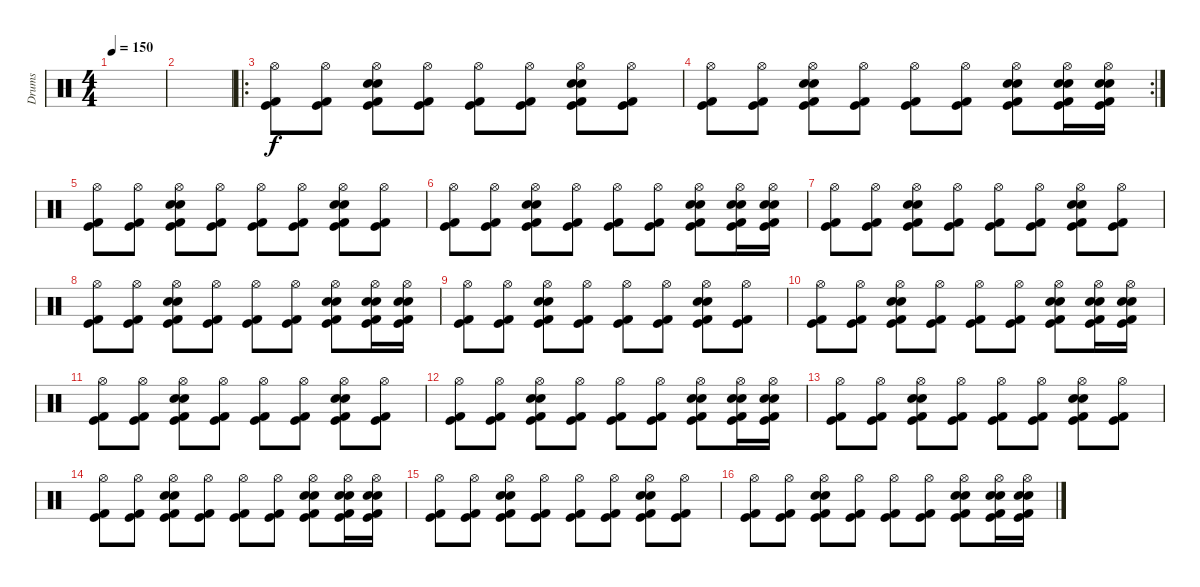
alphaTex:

\track ("Drums" "Drums") {instrument percussion}
\staff {score}
\articulation defaults
\ts (4 4)
\tempo 150
\clef neutral
\ks c
|
|
\ro
("Hi-Hat (open)" "Kick (hit)" "Kick (hit) 2").8 ("Hi-Hat (open)" "Kick (hit)" "Kick (hit) 2").8 ("Snare (hit) 2" "Electric Snare (hit)" "Hi-Hat (open)" "Kick (hit)" "Kick (hit) 2").8 ("Hi-Hat (open)" "Kick (hit)" "Kick (hit) 2").8 ("Hi-Hat (open)" "Kick (hit)" "Kick (hit) 2").8 ("Hi-Hat (open)" "Kick (hit)" "Kick (hit) 2").8 ("Snare (hit) 2" "Electric Snare (hit)" "Hi-Hat (open)" "Kick (hit)" "Kick (hit) 2").8 ("Hi-Hat (open)" "Kick (hit)" "Kick (hit) 2").8 |
\rc 2
("Hi-Hat (open)" "Kick (hit)" "Kick (hit) 2").8 ("Hi-Hat (open)" "Kick (hit)" "Kick (hit) 2").8 ("Snare (hit) 2" "Electric Snare (hit)" "Hi-Hat (open)" "Kick (hit)" "Kick (hit) 2").8 ("Hi-Hat (open)" "Kick (hit)" "Kick (hit) 2").8 ("Hi-Hat (open)" "Kick (hit)" "Kick (hit) 2").8 ("Hi-Hat (open)" "Kick (hit)" "Kick (hit) 2").8 ("Snare (hit) 2" "Electric Snare (hit)" "Hi-Hat (open)" "Kick (hit)" "Kick (hit) 2").8 ("Snare (hit) 2" "Electric Snare (hit)" "Hi-Hat (open)" "Kick (hit)" "Kick (hit) 2").16 ("Snare (hit) 2" "Electric Snare (hit)" "Hi-Hat (open)" "Kick (hit)" "Kick (hit) 2").16 |
("Hi-Hat (open)" "Kick (hit)" "Kick (hit) 2").8 ("Hi-Hat (open)" "Kick (hit)" "Kick (hit) 2").8 ("Snare (hit) 2" "Electric Snare (hit)" "Hi-Hat (open)" "Kick (hit)" "Kick (hit) 2").8 ("Hi-Hat (open)" "Kick (hit)" "Kick (hit) 2").8 ("Hi-Hat (open)" "Kick (hit)" "Kick (hit) 2").8 ("Hi-Hat (open)" "Kick (hit)" "Kick (hit) 2").8 ("Snare (hit) 2" "Electric Snare (hit)" "Hi-Hat (open)" "Kick (hit)" "Kick (hit) 2").8 ("Hi-Hat (open)" "Kick (hit)" "Kick (hit) 2").8 |
("Hi-Hat (open)" "Kick (hit)" "Kick (hit) 2").8 ("Hi-Hat (open)" "Kick (hit)" "Kick (hit) 2").8 ("Snare (hit) 2" "Electric Snare (hit)" "Hi-Hat (open)" "Kick (hit)" "Kick (hit) 2").8 ("Hi-Hat (open)" "Kick (hit)" "Kick (hit) 2").8 ("Hi-Hat (open)" "Kick (hit)" "Kick (hit) 2").8 ("Hi-Hat (open)" "Kick (hit)" "Kick (hit) 2").8 ("Snare (hit) 2" "Electric Snare (hit)" "Hi-Hat (open)" "Kick (hit)" "Kick (hit) 2").8 ("Snare (hit) 2" "Electric Snare (hit)" "Hi-Hat (open)" "Kick (hit)" "Kick (hit) 2").16 ("Snare (hit) 2" "Electric Snare (hit)" "Hi-Hat (open)" "Kick (hit)" "Kick (hit) 2").16 |
("Hi-Hat (open)" "Kick (hit)" "Kick (hit) 2").8 ("Hi-Hat (open)" "Kick (hit)" "Kick (hit) 2").8 ("Snare (hit) 2" "Electric Snare (hit)" "Hi-Hat (open)" "Kick (hit)" "Kick (hit) 2").8 ("Hi-Hat (open)" "Kick (hit)" "Kick (hit) 2").8 ("Hi-Hat (open)" "Kick (hit)" "Kick (hit) 2").8 ("Hi-Hat (open)" "Kick (hit)" "Kick (hit) 2").8 ("Snare (hit) 2" "Electric Snare (hit)" "Hi-Hat (open)" "Kick (hit)" "Kick (hit) 2").8 ("Hi-Hat (open)" "Kick (hit)" "Kick (hit) 2").8 |
("Hi-Hat (open)" "Kick (hit)" "Kick (hit) 2").8 ("Hi-Hat (open)" "Kick (hit)" "Kick (hit) 2").8 ("Snare (hit) 2" "Electric Snare (hit)" "Hi-Hat (open)" "Kick (hit)" "Kick (hit) 2").8 ("Hi-Hat (open)" "Kick (hit)" "Kick (hit) 2").8 ("Hi-Hat (open)" "Kick (hit)" "Kick (hit) 2").8 ("Hi-Hat (open)" "Kick (hit)" "Kick (hit) 2").8 ("Snare (hit) 2" "Electric Snare (hit)" "Hi-Hat (open)" "Kick (hit)" "Kick (hit) 2").8 ("Snare (hit) 2" "Electric Snare (hit)" "Hi-Hat (open)" "Kick (hit)" "Kick (hit) 2").16 ("Snare (hit) 2" "Electric Snare (hit)" "Hi-Hat (open)" "Kick (hit)" "Kick (hit) 2").16 |
("Hi-Hat (open)" "Kick (hit)" "Kick (hit) 2").8 ("Hi-Hat (open)" "Kick (hit)" "Kick (hit) 2").8 ("Snare (hit) 2" "Electric Snare (hit)" "Hi-Hat (open)" "Kick (hit)" "Kick (hit) 2").8 ("Hi-Hat (open)" "Kick (hit)" "Kick (hit) 2").8 ("Hi-Hat (open)" "Kick (hit)" "Kick (hit) 2").8 ("Hi-Hat (open)" "Kick (hit)" "Kick (hit) 2").8 ("Snare (hit) 2" "Electric Snare (hit)" "Hi-Hat (open)" "Kick (hit)" "Kick (hit) 2").8 ("Hi-Hat (open)" "Kick (hit)" "Kick (hit) 2").8 |
("Hi-Hat (open)" "Kick (hit)" "Kick (hit) 2").8 ("Hi-Hat (open)" "Kick (hit)" "Kick (hit) 2").8 ("Snare (hit) 2" "Electric Snare (hit)" "Hi-Hat (open)" "Kick (hit)" "Kick (hit) 2").8 ("Hi-Hat (open)" "Kick (hit)" "Kick (hit) 2").8 ("Hi-Hat (open)" "Kick (hit)" "Kick (hit) 2").8 ("Hi-Hat (open)" "Kick (hit)" "Kick (hit) 2").8 ("Snare (hit) 2" "Electric Snare (hit)" "Hi-Hat (open)" "Kick (hit)" "Kick (hit) 2").8 ("Snare (hit) 2" "Electric Snare (hit)" "Hi-Hat (open)" "Kick (hit)" "Kick (hit) 2").16 ("Snare (hit) 2" "Electric Snare (hit)" "Hi-Hat (open)" "Kick (hit)" "Kick (hit) 2").16 |
("Hi-Hat (open)" "Kick (hit)" "Kick (hit) 2").8 ("Hi-Hat (open)" "Kick (hit)" "Kick (hit) 2").8 ("Snare (hit) 2" "Electric Snare (hit)" "Hi-Hat (open)" "Kick (hit)" "Kick (hit) 2").8 ("Hi-Hat (open)" "Kick (hit)" "Kick (hit) 2").8 ("Hi-Hat (open)" "Kick (hit)" "Kick (hit) 2").8 ("Hi-Hat (open)" "Kick (hit)" "Kick (hit) 2").8 ("Snare (hit) 2" "Electric Snare (hit)" "Hi-Hat (open)" "Kick (hit)" "Kick (hit) 2").8 ("Hi-Hat (open)" "Kick (hit)" "Kick (hit) 2").8 |
("Hi-Hat (open)" "Kick (hit)" "Kick (hit) 2").8 ("Hi-Hat (open)" "Kick (hit)" "Kick (hit) 2").8 ("Snare (hit) 2" "Electric Snare (hit)" "Hi-Hat (open)" "Kick (hit)" "Kick (hit) 2").8 ("Hi-Hat (open)" "Kick (hit)" "Kick (hit) 2").8 ("Hi-Hat (open)" "Kick (hit)" "Kick (hit) 2").8 ("Hi-Hat (open)" "Kick (hit)" "Kick (hit) 2").8 ("Snare (hit) 2" "Electric Snare (hit)" "Hi-Hat (open)" "Kick (hit)" "Kick (hit) 2").8 ("Snare (hit) 2" "Electric Snare (hit)" "Hi-Hat (open)" "Kick (hit)" "Kick (hit) 2").16 ("Snare (hit) 2" "Electric Snare (hit)" "Hi-Hat (open)" "Kick (hit)" "Kick (hit) 2").16 |
("Hi-Hat (open)" "Kick (hit)" "Kick (hit) 2").8 ("Hi-Hat (open)" "Kick (hit)" "Kick (hit) 2").8 ("Snare (hit) 2" "Electric Snare (hit)" "Hi-Hat (open)" "Kick (hit)" "Kick (hit) 2").8 ("Hi-Hat (open)" "Kick (hit)" "Kick (hit) 2").8 ("Hi-Hat (open)" "Kick (hit)" "Kick (hit) 2").8 ("Hi-Hat (open)" "Kick (hit)" "Kick (hit) 2").8 ("Snare (hit) 2" "Electric Snare (hit)" "Hi-Hat (open)" "Kick (hit)" "Kick (hit) 2").8 ("Hi-Hat (open)" "Kick (hit)" "Kick (hit) 2").8 |
("Hi-Hat (open)" "Kick (hit)" "Kick (hit) 2").8 ("Hi-Hat (open)" "Kick (hit)" "Kick (hit) 2").8 ("Snare (hit) 2" "Electric Snare (hit)" "Hi-Hat (open)" "Kick (hit)" "Kick (hit) 2").8 ("Hi-Hat (open)" "Kick (hit)" "Kick (hit) 2").8 ("Hi-Hat (open)" "Kick (hit)" "Kick (hit) 2").8 ("Hi-Hat (open)" "Kick (hit)" "Kick (hit) 2").8 ("Snare (hit) 2" "Electric Snare (hit)" "Hi-Hat (open)" "Kick (hit)" "Kick (hit) 2").8 ("Snare (hit) 2" "Electric Snare (hit)" "Hi-Hat (open)" "Kick (hit)" "Kick (hit) 2").16 ("Snare (hit) 2" "Electric Snare (hit)" "Hi-Hat (open)" "Kick (hit)" "Kick (hit) 2").16 |
("Hi-Hat (open)" "Kick (hit)" "Kick (hit) 2").8 ("Hi-Hat (open)" "Kick (hit)" "Kick (hit) 2").8 ("Snare (hit) 2" "Electric Snare (hit)" "Hi-Hat (open)" "Kick (hit)" "Kick (hit) 2").8 ("Hi-Hat (open)" "Kick (hit)" "Kick (hit) 2").8 ("Hi-Hat (open)" "Kick (hit)" "Kick (hit) 2").8 ("Hi-Hat (open)" "Kick (hit)" "Kick (hit) 2").8 ("Snare (hit) 2" "Electric Snare (hit)" "Hi-Hat (open)" "Kick (hit)" "Kick (hit) 2").8 ("Hi-Hat (open)" "Kick (hit)" "Kick (hit) 2").8 |
("Hi-Hat (open)" "Kick (hit)" "Kick (hit) 2").8 ("Hi-Hat (open)" "Kick (hit)" "Kick (hit) 2").8 ("Snare (hit) 2" "Electric Snare (hit)" "Hi-Hat (open)" "Kick (hit)" "Kick (hit) 2").8 ("Hi-Hat (open)" "Kick (hit)" "Kick (hit) 2").8 ("Hi-Hat (open)" "Kick (hit)" "Kick (hit) 2").8 ("Hi-Hat (open)" "Kick (hit)" "Kick (hit) 2").8 ("Snare (hit) 2" "Electric Snare (hit)" "Hi-Hat (open)" "Kick (hit)" "Kick (hit) 2").8 ("Snare (hit) 2" "Electric Snare (hit)" "Hi-Hat (open)" "Kick (hit)" "Kick (hit) 2").16 ("Snare (hit) 2" "Electric Snare (hit)" "Hi-Hat (open)" "Kick (hit)" "Kick (hit) 2").16
